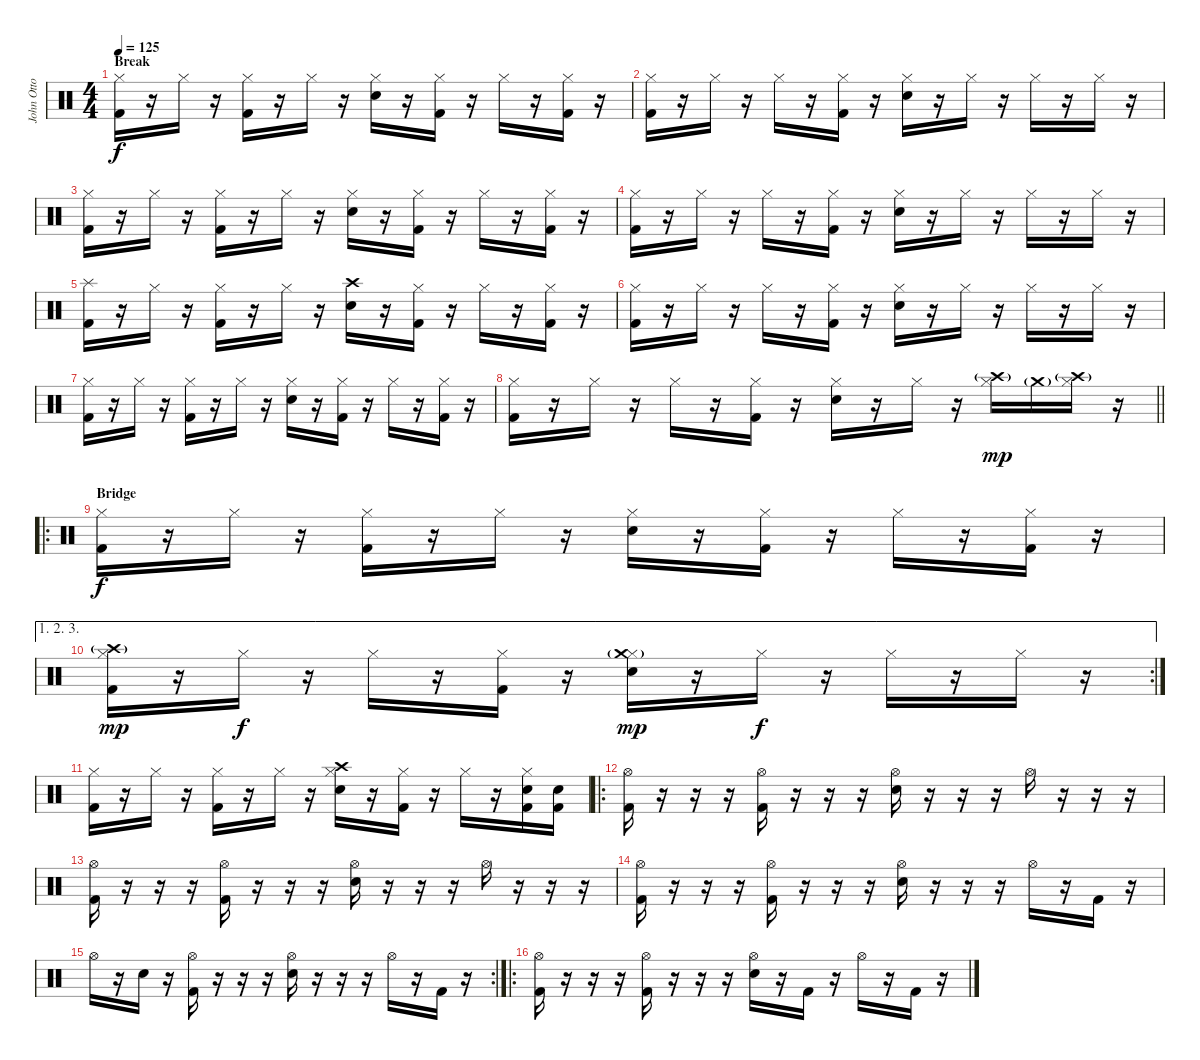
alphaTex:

\track ("John Otto" "John Otto") {instrument percussion}
\staff {score}
\articulation defaults
\ts (4 4)
\section ("" "Break")
\tempo 125
\clef neutral
\ks c
("Hi-Hat (closed)" "Kick (hit) 2").16{dy f} r.16 "Hi-Hat (closed)".16 r.16 ("Hi-Hat (closed)" "Kick (hit) 2").16 r.16 "Hi-Hat (closed)".16 r.16 ("Hi-Hat (closed)" "Snare (hit) 2").16 r.16 ("Hi-Hat (closed)" "Kick (hit) 2").16 r.16 "Hi-Hat (closed)".16 r.16 ("Hi-Hat (closed)" "Kick (hit) 2").16 r.16 |
("Hi-Hat (closed)" "Kick (hit) 2").16 r.16 "Hi-Hat (closed)".16 r.16 "Hi-Hat (closed)".16 r.16 ("Hi-Hat (closed)" "Kick (hit) 2").16 r.16 ("Hi-Hat (closed)" "Snare (hit) 2").16 r.16 "Hi-Hat (closed)".16 r.16 "Hi-Hat (closed)".16 r.16 "Hi-Hat (closed)".16 r.16 |
("Hi-Hat (closed)" "Kick (hit) 2").16 r.16 "Hi-Hat (closed)".16 r.16 ("Hi-Hat (closed)" "Kick (hit) 2").16 r.16 "Hi-Hat (closed)".16 r.16 ("Hi-Hat (closed)" "Snare (hit) 2").16 r.16 ("Hi-Hat (closed)" "Kick (hit) 2").16 r.16 "Hi-Hat (closed)".16 r.16 ("Hi-Hat (closed)" "Kick (hit) 2").16 r.16 |
("Hi-Hat (closed)" "Kick (hit) 2").16 r.16 "Hi-Hat (closed)".16 r.16 "Hi-Hat (closed)".16 r.16 ("Hi-Hat (closed)" "Kick (hit) 2").16 r.16 ("Hi-Hat (closed)" "Snare (hit) 2").16 r.16 "Hi-Hat (closed)".16 r.16 "Hi-Hat (closed)".16 r.16 "Hi-Hat (closed)".16 r.16 |
("Splash (hit)" "Kick (hit) 2").16 r.16 "Hi-Hat (closed)".16 r.16 ("Hi-Hat (closed)" "Kick (hit) 2").16 r.16 "Hi-Hat (closed)".16 r.16 ("Crash high (hit)" "Snare (hit) 2").16 r.16 ("Hi-Hat (closed)" "Kick (hit) 2").16 r.16 "Hi-Hat (closed)".16 r.16 ("Hi-Hat (closed)" "Kick (hit) 2").16 r.16 |
("Hi-Hat (closed)" "Kick (hit) 2").16 r.16 "Hi-Hat (closed)".16 r.16 "Hi-Hat (closed)".16 r.16 ("Hi-Hat (closed)" "Kick (hit) 2").16 r.16 ("Hi-Hat (closed)" "Snare (hit) 2").16 r.16 "Hi-Hat (closed)".16 r.16 "Hi-Hat (closed)".16 r.16 "Hi-Hat (closed)".16 r.16 |
("Hi-Hat (closed)" "Kick (hit) 2").16 r.16 "Hi-Hat (closed)".16 r.16 ("Hi-Hat (closed)" "Kick (hit) 2").16 r.16 "Hi-Hat (closed)".16 r.16 ("Hi-Hat (closed)" "Snare (hit) 2").16 r.16 ("Hi-Hat (closed)" "Kick (hit) 2").16 r.16 "Hi-Hat (closed)".16 r.16 ("Hi-Hat (closed)" "Kick (hit) 2").16 r.16 |
\barLineRight lightlight
("Hi-Hat (closed)" "Kick (hit) 2").16 r.16 "Hi-Hat (closed)".16 r.16 "Hi-Hat (closed)".16 r.16 ("Hi-Hat (closed)" "Kick (hit) 2").16 r.16 ("Hi-Hat (closed)" "Snare (hit) 2").16 r.16 "Hi-Hat (closed)".16 r.16 ("Hi-Hat (closed)" "Crash high (hit)"{g}).16{dy mp} "Crash medium (hit)"{g}.16 ("Hi-Hat (closed)" "Crash high (hit)"{g}).16 r.16 |
\ro
\section ("" "Bridge")
("Hi-Hat (closed)" "Kick (hit) 2").16{dy f} r.16 "Hi-Hat (closed)".16 r.16 ("Hi-Hat (closed)" "Kick (hit) 2").16 r.16 "Hi-Hat (closed)".16 r.16 ("Hi-Hat (closed)" "Snare (hit) 2").16 r.16 ("Hi-Hat (closed)" "Kick (hit) 2").16 r.16 "Hi-Hat (closed)".16 r.16 ("Hi-Hat (closed)" "Kick (hit) 2").16 r.16 |
\ae (1 2 3)
\rc 2
("Hi-Hat (closed)" "Crash high (hit)"{g} "Kick (hit) 2").16{dy mp} r.16 "Hi-Hat (closed)".16{dy f} r.16 "Hi-Hat (closed)".16 r.16 ("Hi-Hat (closed)" "Kick (hit) 2").16 r.16 ("Hi-Hat (closed)" "Crash medium (hit)"{g} "Snare (hit) 2").16{dy mp} r.16 "Hi-Hat (closed)".16{dy f} r.16 "Hi-Hat (closed)".16 r.16 "Hi-Hat (closed)".16 r.16 |
("Hi-Hat (closed)" "Kick (hit) 2").16 r.16 "Hi-Hat (closed)".16 r.16 ("Hi-Hat (closed)" "Kick (hit) 2").16 r.16 "Hi-Hat (closed)".16 r.16 ("Hi-Hat (closed)" "Crash high (hit)" "Snare (hit) 2").16 r.16 ("Hi-Hat (closed)" "Kick (hit) 2").16 r.16 "Hi-Hat (closed)".16 r.16 ("Hi-Hat (closed)" "Snare (hit) 2" "Kick (hit) 2").16 ("Snare (hit) 2" "Kick (hit) 2").16 |
\ro
("Hi-Hat (open)" "Kick (hit) 2").16 r.16 r.16 r.16 ("Hi-Hat (open)" "Kick (hit) 2").16 r.16 r.16 r.16 ("Hi-Hat (open)" "Snare (hit) 2").16 r.16 r.16 r.16 "Hi-Hat (open)".16 r.16 r.16 r.16 |
("Hi-Hat (open)" "Kick (hit) 2").16 r.16 r.16 r.16 ("Hi-Hat (open)" "Kick (hit) 2").16 r.16 r.16 r.16 ("Hi-Hat (open)" "Snare (hit) 2").16 r.16 r.16 r.16 "Hi-Hat (open)".16 r.16 r.16 r.16 |
("Hi-Hat (open)" "Kick (hit) 2").16 r.16 r.16 r.16 ("Hi-Hat (open)" "Kick (hit) 2").16 r.16 r.16 r.16 ("Hi-Hat (open)" "Snare (hit) 2").16 r.16 r.16 r.16 "Hi-Hat (open)".16 r.16 "Kick (hit) 2".16 r.16 |
\rc 2 "Hi-Hat (open)".16
r.16 "Snare (hit) 2".16 r.16 ("Hi-Hat (open)" "Kick (hit) 2").16 r.16 r.16 r.16 ("Hi-Hat (open)" "Snare (hit) 2").16 r.16 r.16 r.16 "Hi-Hat (open)".16 r.16 "Kick (hit) 2".16 r.16 |
\ro
("Hi-Hat (open)" "Kick (hit) 2").16 r.16 r.16 r.16 ("Hi-Hat (open)" "Kick (hit) 2").16 r.16 r.16 r.16 ("Hi-Hat (open)" "Snare (hit) 2").16 r.16 "Kick (hit) 2".16 r.16 "Hi-Hat (open)".16 r.16 "Kick (hit) 2".16 r.16
